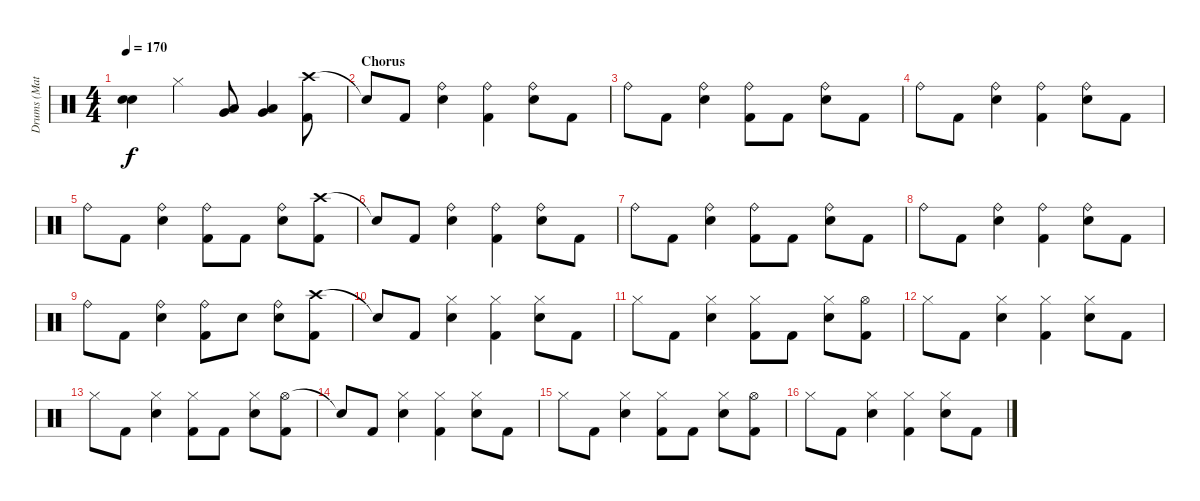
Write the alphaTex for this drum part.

\track ("Drums (Matt)" "Drums (Mat") {instrument percussion}
\staff {score}
\articulation defaults
\ts (4 4)
\tempo 170
\clef neutral
\ks c
("Snare (hit)"{t} "Snare (hit)"{t}).4{dy f} "Hi-Hat (closed)".4 ("Low Tom (hit)" "Very Low Tom (hit)").8 ("Low Tom (hit)" "Very Low Tom (hit)").4 ("Crash high (hit)" "Kick (hit) 2").8 |
\section ("" "Chorus")
"Snare (hit)"{t}.8 "Kick (hit) 2".8 ("Ride (bell)" "Snare (hit) 2").4 ("Ride (bell)" "Kick (hit) 2").4 ("Ride (bell)" "Snare (hit) 2").8 "Kick (hit) 2".8 |
"Ride (bell)".8 "Kick (hit) 2".8 ("Ride (bell)" "Snare (hit) 2").4 ("Ride (bell)" "Kick (hit) 2").8 "Kick (hit) 2".8 ("Ride (bell)" "Snare (hit) 2").8 "Kick (hit) 2".8 |
"Ride (bell)".8 "Kick (hit) 2".8 ("Ride (bell)" "Snare (hit) 2").4 ("Ride (bell)" "Kick (hit) 2").4 ("Ride (bell)" "Snare (hit) 2").8 "Kick (hit) 2".8 |
"Ride (bell)".8 "Kick (hit) 2".8 ("Ride (bell)" "Snare (hit) 2").4 ("Ride (bell)" "Kick (hit) 2").8 "Kick (hit) 2".8 ("Ride (bell)" "Snare (hit) 2").8 ("Crash high (hit)" "Kick (hit) 2").8 |
"Snare (hit)"{t}.8 "Kick (hit) 2".8 ("Ride (bell)" "Snare (hit) 2").4 ("Ride (bell)" "Kick (hit) 2").4 ("Ride (bell)" "Snare (hit) 2").8 "Kick (hit) 2".8 |
"Ride (bell)".8 "Kick (hit) 2".8 ("Ride (bell)" "Snare (hit) 2").4 ("Ride (bell)" "Kick (hit) 2").8 "Kick (hit) 2".8 ("Ride (bell)" "Snare (hit) 2").8 "Kick (hit) 2".8 |
"Ride (bell)".8 "Kick (hit) 2".8 ("Ride (bell)" "Snare (hit) 2").4 ("Ride (bell)" "Kick (hit) 2").4 ("Ride (bell)" "Snare (hit) 2").8 "Kick (hit) 2".8 |
"Ride (bell)".8 "Kick (hit) 2".8 ("Ride (bell)" "Snare (hit) 2").4 ("Ride (bell)" "Kick (hit) 2").8 "Snare (hit) 2".8 ("Ride (bell)" "Snare (hit) 2").8 ("Crash high (hit)" "Kick (hit) 2").8 |
"Snare (hit)"{t}.8 "Kick (hit) 2".8 ("Hi-Hat (closed)" "Snare (hit) 2").4 ("Hi-Hat (closed)" "Kick (hit) 2").4 ("Hi-Hat (closed)" "Snare (hit) 2").8 "Kick (hit) 2".8 |
"Hi-Hat (closed)".8 "Kick (hit) 2".8 ("Hi-Hat (closed)" "Snare (hit) 2").4 ("Hi-Hat (closed)" "Kick (hit) 2").8 "Kick (hit) 2".8 ("Hi-Hat (closed)" "Snare (hit) 2").8 ("Hi-Hat (open)" "Kick (hit) 2").8 |
"Hi-Hat (closed)".8 "Kick (hit) 2".8 ("Hi-Hat (closed)" "Snare (hit) 2").4 ("Hi-Hat (closed)" "Kick (hit) 2").4 ("Hi-Hat (closed)" "Snare (hit) 2").8 "Kick (hit) 2".8 |
"Hi-Hat (closed)".8 "Kick (hit) 2".8 ("Hi-Hat (closed)" "Snare (hit) 2").4 ("Hi-Hat (closed)" "Kick (hit) 2").8 "Kick (hit) 2".8 ("Hi-Hat (closed)" "Snare (hit) 2").8 ("Hi-Hat (open)" "Kick (hit) 2").8 |
"Snare (hit)"{t}.8 "Kick (hit) 2".8 ("Hi-Hat (closed)" "Snare (hit) 2").4 ("Hi-Hat (closed)" "Kick (hit) 2").4 ("Hi-Hat (closed)" "Snare (hit) 2").8 "Kick (hit) 2".8 |
"Hi-Hat (closed)".8 "Kick (hit) 2".8 ("Hi-Hat (closed)" "Snare (hit) 2").4 ("Hi-Hat (closed)" "Kick (hit) 2").8 "Kick (hit) 2".8 ("Hi-Hat (closed)" "Snare (hit) 2").8 ("Hi-Hat (open)" "Kick (hit) 2").8 |
"Hi-Hat (closed)".8 "Kick (hit) 2".8 ("Hi-Hat (closed)" "Snare (hit) 2").4 ("Hi-Hat (closed)" "Kick (hit) 2").4 ("Hi-Hat (closed)" "Snare (hit) 2").8 "Kick (hit) 2".8
